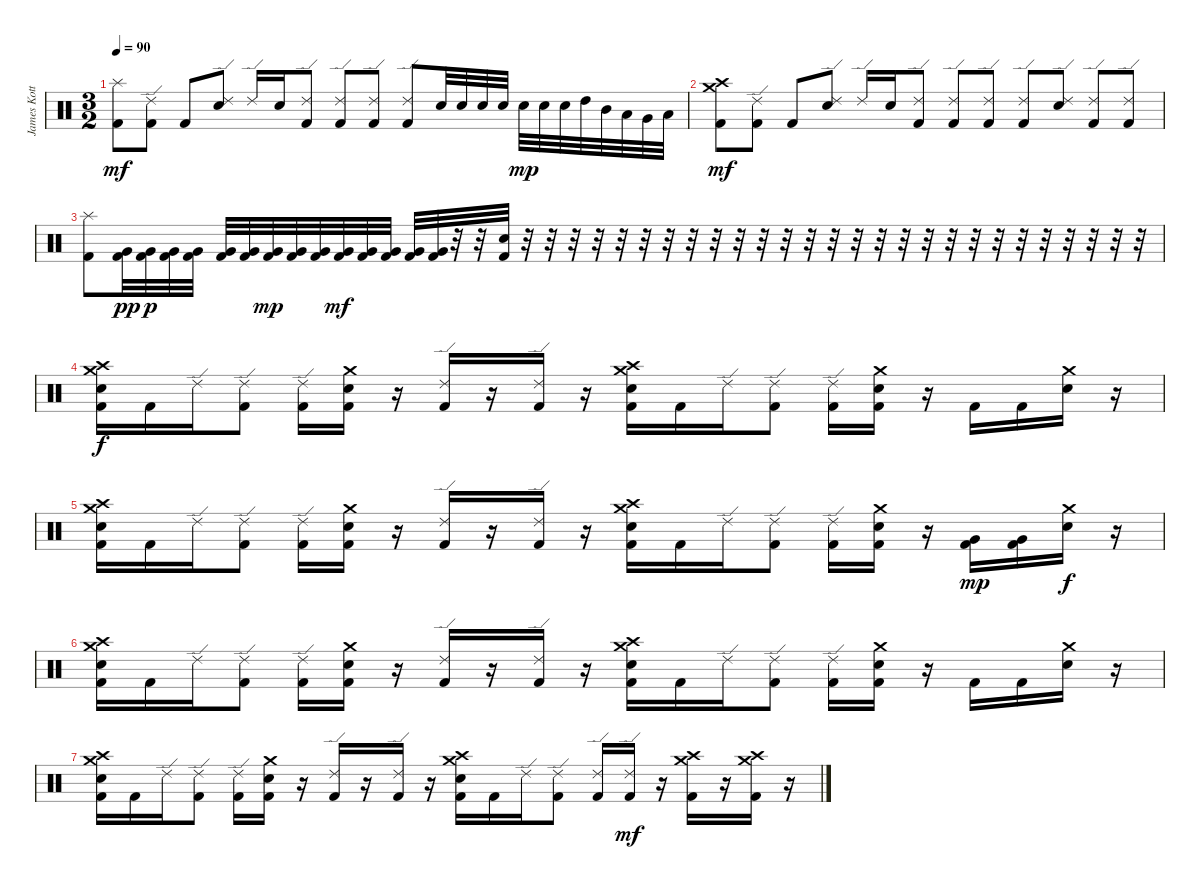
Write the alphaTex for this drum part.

\track ("James Kottak" "James Kott") {instrument percussion}
\staff {score}
\articulation defaults
\ts (3 2)
\tempo 90
\clef neutral
\ks c
("Splash (hit)" "Kick (hit) 2").8{dy mf} ("Ride (edge) 2" "Kick (hit) 2").8 "Kick (hit) 2".8 ("Ride (edge) 2" "Electric Snare (hit)").8 "Ride (edge) 2".16 "Electric Snare (hit)".16 ("Ride (edge) 2" "Kick (hit) 2").8 ("Ride (edge) 2" "Kick (hit) 2").8 ("Ride (edge) 2" "Kick (hit) 2").8 ("Ride (edge) 2" "Kick (hit) 2").8 "Electric Snare (hit)".32 "Electric Snare (hit)".32 "Electric Snare (hit)".32 "Electric Snare (hit)".32 "Electric Snare (hit)".32{dy mp} "Electric Snare (hit)".32 "Electric Snare (hit)".32 "High Tom (hit)".32 "Mid Tom (hit)".32 "Low Tom (hit)".32 "Very Low Tom (hit)".32 "Low Floor Tom (hit)".32 |
("Crash medium (hit)" "Crash high (hit)" "Kick (hit) 2").8{dy mf} ("Ride (edge) 2" "Kick (hit) 2").8 "Kick (hit) 2".8 ("Ride (edge) 2" "Electric Snare (hit)").8 "Ride (edge) 2".16 "Electric Snare (hit)".16 ("Ride (edge) 2" "Kick (hit) 2").8 ("Ride (edge) 2" "Kick (hit) 2").8 ("Ride (edge) 2" "Kick (hit) 2").8 ("Ride (edge) 2" "Kick (hit) 2").8 ("Ride (edge) 2" "Electric Snare (hit)").8 ("Ride (edge) 2" "Kick (hit) 2").8 ("Ride (edge) 2" "Kick (hit) 2").8 |
("Splash (hit)" "Kick (hit) 2").8 ("Very Low Tom (hit)" "Kick (hit) 2").32{dy pp} ("Very Low Tom (hit)" "Kick (hit) 2").32{dy p} ("Very Low Tom (hit)" "Kick (hit) 2").32 ("Very Low Tom (hit)" "Kick (hit) 2").32 ("Very Low Tom (hit)" "Kick (hit) 2").32 ("Very Low Tom (hit)" "Kick (hit) 2").32 ("Very Low Tom (hit)" "Kick (hit) 2").32{dy mp} ("Very Low Tom (hit)" "Kick (hit) 2").32 ("Very Low Tom (hit)" "Kick (hit) 2").32 ("Very Low Tom (hit)" "Kick (hit) 2").32{dy mf} ("Very Low Tom (hit)" "Kick (hit) 2").32 ("Very Low Tom (hit)" "Kick (hit) 2").32 ("Very Low Tom (hit)" "Kick (hit) 2").32 ("Very Low Tom (hit)" "Kick (hit) 2").32 r.32 r.32 ("Electric Snare (hit)" "Kick (hit) 2").32 r.32 r.32 r.32 r.32 r.32 r.32 r.32 r.32 r.32 r.32 r.32 r.32 r.32 r.32 r.32 r.32 r.32 r.32 r.32 r.32 r.32 r.32 r.32 r.32 r.32 r.32 r.32 |
("Crash medium (hit)" "Crash high (hit)" "Electric Snare (hit)" "Kick (hit) 2").16{dy f} "Kick (hit) 2".16 "Ride (edge) 2".16 ("Ride (edge) 2" "Kick (hit) 2").8 ("Ride (edge) 2" "Kick (hit) 2").16 ("Crash medium (hit)" "Electric Snare (hit)" "Kick (hit) 2").16 r.16 ("Ride (edge) 2" "Kick (hit) 2").16 r.16 ("Ride (edge) 2" "Kick (hit) 2").16 r.16 ("Crash high (hit)" "Crash medium (hit)" "Electric Snare (hit)" "Kick (hit) 2").16 "Kick (hit) 2".16 "Ride (edge) 2".16 ("Ride (edge) 2" "Kick (hit) 2").8 ("Ride (edge) 2" "Kick (hit) 2").16 ("Crash medium (hit)" "Electric Snare (hit)" "Kick (hit) 2").16 r.16 "Kick (hit) 2".16 "Kick (hit) 2".16 ("Crash medium (hit)" "Electric Snare (hit)").16 r.16 |
("Crash medium (hit)" "Crash high (hit)" "Electric Snare (hit)" "Kick (hit) 2").16 "Kick (hit) 2".16 "Ride (edge) 2".16 ("Ride (edge) 2" "Kick (hit) 2").8 ("Ride (edge) 2" "Kick (hit) 2").16 ("Crash medium (hit)" "Electric Snare (hit)" "Kick (hit) 2").16 r.16 ("Ride (edge) 2" "Kick (hit) 2").16 r.16 ("Ride (edge) 2" "Kick (hit) 2").16 r.16 ("Crash high (hit)" "Crash medium (hit)" "Electric Snare (hit)" "Kick (hit) 2").16 "Kick (hit) 2".16 "Ride (edge) 2".16 ("Ride (edge) 2" "Kick (hit) 2").8 ("Ride (edge) 2" "Kick (hit) 2").16 ("Crash medium (hit)" "Electric Snare (hit)" "Kick (hit) 2").16 r.16 ("Very Low Tom (hit)" "Kick (hit) 2").16{dy mp} ("Very Low Tom (hit)" "Kick (hit) 2").16 ("Crash medium (hit)" "Electric Snare (hit)").16{dy f} r.16 |
("Crash medium (hit)" "Crash high (hit)" "Electric Snare (hit)" "Kick (hit) 2").16 "Kick (hit) 2".16 "Ride (edge) 2".16 ("Ride (edge) 2" "Kick (hit) 2").8 ("Ride (edge) 2" "Kick (hit) 2").16 ("Crash medium (hit)" "Electric Snare (hit)" "Kick (hit) 2").16 r.16 ("Ride (edge) 2" "Kick (hit) 2").16 r.16 ("Ride (edge) 2" "Kick (hit) 2").16 r.16 ("Crash high (hit)" "Crash medium (hit)" "Electric Snare (hit)" "Kick (hit) 2").16 "Kick (hit) 2".16 "Ride (edge) 2".16 ("Ride (edge) 2" "Kick (hit) 2").8 ("Ride (edge) 2" "Kick (hit) 2").16 ("Crash medium (hit)" "Electric Snare (hit)" "Kick (hit) 2").16 r.16 "Kick (hit) 2".16 "Kick (hit) 2".16 ("Crash medium (hit)" "Electric Snare (hit)").16 r.16 |
("Crash medium (hit)" "Crash high (hit)" "Electric Snare (hit)" "Kick (hit) 2").16 "Kick (hit) 2".16 "Ride (edge) 2".16 ("Ride (edge) 2" "Kick (hit) 2").8 ("Ride (edge) 2" "Kick (hit) 2").16 ("Crash medium (hit)" "Electric Snare (hit)" "Kick (hit) 2").16 r.16 ("Ride (edge) 2" "Kick (hit) 2").16 r.16 ("Ride (edge) 2" "Kick (hit) 2").16 r.16 ("Crash high (hit)" "Crash medium (hit)" "Electric Snare (hit)" "Kick (hit) 2").16 "Kick (hit) 2".16 "Ride (edge) 2".16 ("Ride (edge) 2" "Kick (hit) 2").8 ("Ride (edge) 2" "Kick (hit) 2").16 ("Ride (edge) 2" "Kick (hit) 2").16{dy mf} r.16 ("Crash high (hit)" "Crash medium (hit)" "Kick (hit) 2").16 r.16 ("Crash high (hit)" "Crash medium (hit)" "Kick (hit) 2").16 r.16
